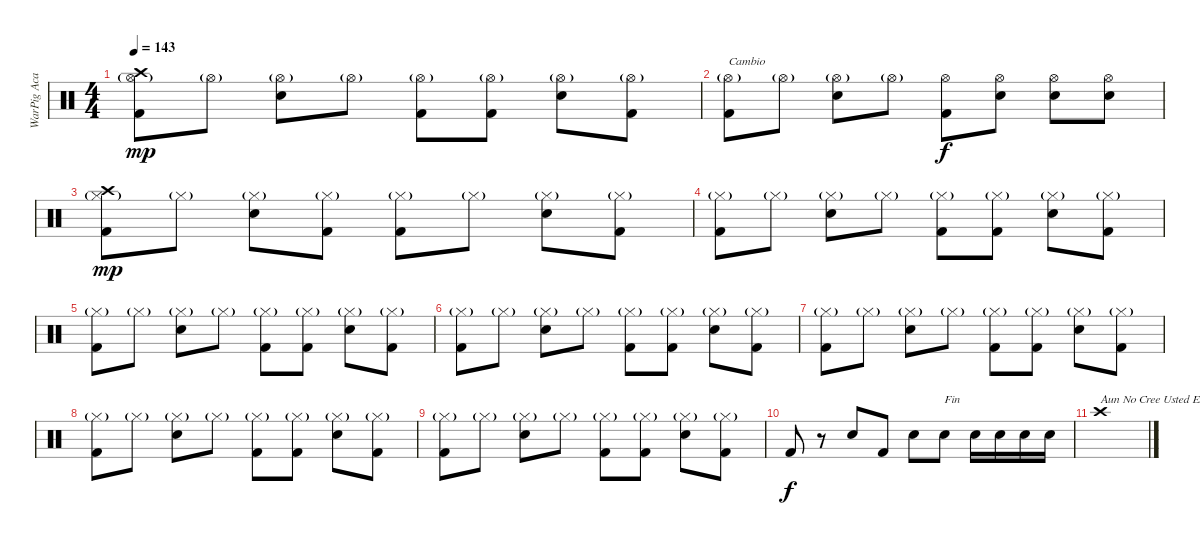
\track ("WarPig Acapulco" "WarPig Aca") {instrument percussion}
\staff {score}
\articulation defaults
\ts (4 4)
\tempo 143
\clef neutral
\ks c
("Kick (hit) 2" "Crash high (hit)" "Hi-Hat (open)"{g}).8{dy mp} "Hi-Hat (open)"{g}.8 ("Electric Snare (hit)" "Hi-Hat (open)"{g}).8 "Hi-Hat (open)"{g}.8 ("Kick (hit) 2" "Hi-Hat (open)"{g}).8 ("Kick (hit) 2" "Hi-Hat (open)"{g}).8 ("Electric Snare (hit)" "Hi-Hat (open)"{g}).8 ("Kick (hit) 2" "Hi-Hat (open)"{g}).8 |
("Kick (hit) 2" "Hi-Hat (open)"{g}).8{txt "Cambio"} "Hi-Hat (open)"{g}.8 ("Electric Snare (hit)" "Hi-Hat (open)"{g}).8 "Hi-Hat (open)"{g}.8 ("Kick (hit) 2" "Hi-Hat (open)").8{dy f} ("Electric Snare (hit)" "Hi-Hat (open)").8 ("Electric Snare (hit)" "Hi-Hat (open)").8 ("Electric Snare (hit)" "Hi-Hat (open)").8 |
("Kick (hit) 2" "Crash high (hit)" "Hi-Hat (closed)"{g}).8{dy mp} "Hi-Hat (closed)"{g}.8 ("Electric Snare (hit)" "Hi-Hat (closed)"{g}).8 ("Kick (hit) 2" "Hi-Hat (closed)"{g}).8 ("Kick (hit) 2" "Hi-Hat (closed)"{g}).8 "Hi-Hat (closed)"{g}.8 ("Electric Snare (hit)" "Hi-Hat (closed)"{g}).8 ("Kick (hit) 2" "Hi-Hat (closed)"{g}).8 |
("Kick (hit) 2" "Hi-Hat (closed)"{g}).8 "Hi-Hat (closed)"{g}.8 ("Electric Snare (hit)" "Hi-Hat (closed)"{g}).8 "Hi-Hat (closed)"{g}.8 ("Kick (hit) 2" "Hi-Hat (closed)"{g}).8 ("Kick (hit) 2" "Hi-Hat (closed)"{g}).8 ("Electric Snare (hit)" "Hi-Hat (closed)"{g}).8 ("Kick (hit) 2" "Hi-Hat (closed)"{g}).8 |
("Kick (hit) 2" "Hi-Hat (closed)"{g}).8 "Hi-Hat (closed)"{g}.8 ("Electric Snare (hit)" "Hi-Hat (closed)"{g}).8 "Hi-Hat (closed)"{g}.8 ("Kick (hit) 2" "Hi-Hat (closed)"{g}).8 ("Kick (hit) 2" "Hi-Hat (closed)"{g}).8 ("Electric Snare (hit)" "Hi-Hat (closed)"{g}).8 ("Kick (hit) 2" "Hi-Hat (closed)"{g}).8 |
("Kick (hit) 2" "Hi-Hat (closed)"{g}).8 "Hi-Hat (closed)"{g}.8 ("Electric Snare (hit)" "Hi-Hat (closed)"{g}).8 "Hi-Hat (closed)"{g}.8 ("Kick (hit) 2" "Hi-Hat (closed)"{g}).8 ("Kick (hit) 2" "Hi-Hat (closed)"{g}).8 ("Electric Snare (hit)" "Hi-Hat (closed)"{g}).8 ("Kick (hit) 2" "Hi-Hat (closed)"{g}).8 |
("Kick (hit) 2" "Hi-Hat (closed)"{g}).8 "Hi-Hat (closed)"{g}.8 ("Electric Snare (hit)" "Hi-Hat (closed)"{g}).8 "Hi-Hat (closed)"{g}.8 ("Kick (hit) 2" "Hi-Hat (closed)"{g}).8 ("Kick (hit) 2" "Hi-Hat (closed)"{g}).8 ("Electric Snare (hit)" "Hi-Hat (closed)"{g}).8 ("Kick (hit) 2" "Hi-Hat (closed)"{g}).8 |
("Kick (hit) 2" "Hi-Hat (closed)"{g}).8 "Hi-Hat (closed)"{g}.8 ("Electric Snare (hit)" "Hi-Hat (closed)"{g}).8 "Hi-Hat (closed)"{g}.8 ("Kick (hit) 2" "Hi-Hat (closed)"{g}).8 ("Kick (hit) 2" "Hi-Hat (closed)"{g}).8 ("Electric Snare (hit)" "Hi-Hat (closed)"{g}).8 ("Kick (hit) 2" "Hi-Hat (closed)"{g}).8 |
("Kick (hit) 2" "Hi-Hat (closed)"{g}).8 "Hi-Hat (closed)"{g}.8 ("Electric Snare (hit)" "Hi-Hat (closed)"{g}).8 "Hi-Hat (closed)"{g}.8 ("Kick (hit) 2" "Hi-Hat (closed)"{g}).8 ("Kick (hit) 2" "Hi-Hat (closed)"{g}).8 ("Electric Snare (hit)" "Hi-Hat (closed)"{g}).8 ("Kick (hit) 2" "Hi-Hat (closed)"{g}).8 |
"Kick (hit) 2".8{dy f} r.8 "Electric Snare (hit)".8 "Kick (hit) 2".8 "Electric Snare (hit)".8 "Electric Snare (hit)".8{txt "Fin"} "Electric Snare (hit)".16 "Electric Snare (hit)".16 "Electric Snare (hit)".16 "Electric Snare (hit)".16 |
"Crash high (hit)".1{txt "Aun No Cree Usted En Los Zombies?"}
